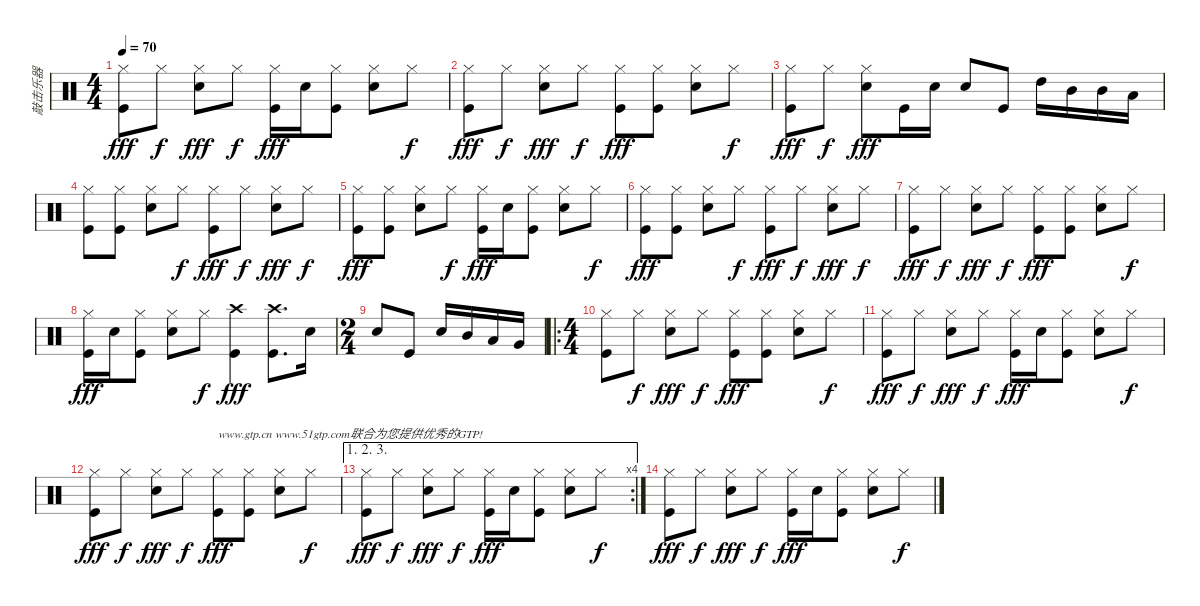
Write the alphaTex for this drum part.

\track ("敲击乐器" "敲击乐器") {instrument percussion}
\staff {score}
\articulation defaults
\ts (4 4)
\tempo 70
\clef neutral
\ks c
("Hi-Hat (closed)" "Kick (hit)").8{dy fff} "Hi-Hat (closed)".8{dy f} ("Hi-Hat (closed)" "Snare (hit) 2").8{dy fff} "Hi-Hat (closed)".8{dy f} ("Hi-Hat (closed)" "Kick (hit)").16{dy fff} "Snare (hit) 2".16 ("Hi-Hat (closed)" "Kick (hit)").8 ("Hi-Hat (closed)" "Snare (hit) 2").8 "Hi-Hat (closed)".8{dy f} |
("Hi-Hat (closed)" "Kick (hit)").8{dy fff} "Hi-Hat (closed)".8{dy f} ("Hi-Hat (closed)" "Snare (hit) 2").8{dy fff} "Hi-Hat (closed)".8{dy f} ("Hi-Hat (closed)" "Kick (hit)").8{dy fff} ("Hi-Hat (closed)" "Kick (hit)").8 ("Hi-Hat (closed)" "Snare (hit) 2").8 "Hi-Hat (closed)".8{dy f} |
("Hi-Hat (closed)" "Kick (hit)").8{dy fff} "Hi-Hat (closed)".8{dy f} ("Hi-Hat (closed)" "Snare (hit) 2").8{dy fff} "Kick (hit)".16 "Snare (hit) 2".16 "Snare (hit) 2".8 "Kick (hit)".8 "High Tom (hit)".16 "Mid Tom (hit)".16 "Mid Tom (hit)".16 "Low Tom (hit)".16 |
("Hi-Hat (closed)" "Kick (hit)").8 ("Hi-Hat (closed)" "Kick (hit)").8 ("Hi-Hat (closed)" "Snare (hit) 2").8 "Hi-Hat (closed)".8{dy f} ("Hi-Hat (closed)" "Kick (hit)").8{dy fff} "Hi-Hat (closed)".8{dy f} ("Hi-Hat (closed)" "Snare (hit) 2").8{dy fff} "Hi-Hat (closed)".8{dy f} |
("Hi-Hat (closed)" "Kick (hit)").8{dy fff} ("Hi-Hat (closed)" "Kick (hit)").8 ("Hi-Hat (closed)" "Snare (hit) 2").8 "Hi-Hat (closed)".8{dy f} ("Hi-Hat (closed)" "Kick (hit)").16{dy fff} "Snare (hit) 2".16 ("Hi-Hat (closed)" "Kick (hit)").8 ("Hi-Hat (closed)" "Snare (hit) 2").8 "Hi-Hat (closed)".8{dy f} |
("Hi-Hat (closed)" "Kick (hit)").8{dy fff} ("Hi-Hat (closed)" "Kick (hit)").8 ("Hi-Hat (closed)" "Snare (hit) 2").8 "Hi-Hat (closed)".8{dy f} ("Hi-Hat (closed)" "Kick (hit)").8{dy fff} "Hi-Hat (closed)".8{dy f} ("Hi-Hat (closed)" "Snare (hit) 2").8{dy fff} "Hi-Hat (closed)".8{dy f} |
("Hi-Hat (closed)" "Kick (hit)").8{dy fff} "Hi-Hat (closed)".8{dy f} ("Hi-Hat (closed)" "Snare (hit) 2").8{dy fff} "Hi-Hat (closed)".8{dy f} ("Hi-Hat (closed)" "Kick (hit)").8{dy fff} ("Hi-Hat (closed)" "Kick (hit)").8 ("Hi-Hat (closed)" "Snare (hit) 2").8 "Hi-Hat (closed)".8{dy f} |
("Hi-Hat (closed)" "Kick (hit)").16{dy fff} "Snare (hit) 2".16 ("Hi-Hat (closed)" "Kick (hit)").8 ("Hi-Hat (closed)" "Snare (hit) 2").8 "Hi-Hat (closed)".8{dy f} ("Crash high (hit)" "Kick (hit)").4{dy fff} ("Crash high (hit)" "Kick (hit)").8{d} "Snare (hit) 2".16 |
\ts (2 4)
"Snare (hit) 2".8 "Kick (hit)".8 "Snare (hit) 2".16 "Mid Tom (hit)".16 "Low Tom (hit)".16 "Very Low Tom (hit)".16 |
\ro
\ts (4 4)
("Hi-Hat (closed)" "Kick (hit)").8 "Hi-Hat (closed)".8{dy f} ("Hi-Hat (closed)" "Snare (hit) 2").8{dy fff} "Hi-Hat (closed)".8{dy f} ("Hi-Hat (closed)" "Kick (hit)").8{dy fff} ("Hi-Hat (closed)" "Kick (hit)").8 ("Hi-Hat (closed)" "Snare (hit) 2").8 "Hi-Hat (closed)".8{dy f} |
("Hi-Hat (closed)" "Kick (hit)").8{dy fff} "Hi-Hat (closed)".8{dy f} ("Hi-Hat (closed)" "Snare (hit) 2").8{dy fff} "Hi-Hat (closed)".8{dy f} ("Hi-Hat (closed)" "Kick (hit)").16{dy fff} "Snare (hit) 2".16 ("Hi-Hat (closed)" "Kick (hit)").8 ("Hi-Hat (closed)" "Snare (hit) 2").8 "Hi-Hat (closed)".8{dy f} |
("Hi-Hat (closed)" "Kick (hit)").8{dy fff} "Hi-Hat (closed)".8{dy f} ("Hi-Hat (closed)" "Snare (hit) 2").8{dy fff} "Hi-Hat (closed)".8{dy f} ("Hi-Hat (closed)" "Kick (hit)").8{txt "www.gtp.cn www.51gtp.com联合为您提供优秀的GTP!" dy fff} ("Hi-Hat (closed)" "Kick (hit)").8 ("Hi-Hat (closed)" "Snare (hit) 2").8 "Hi-Hat (closed)".8{dy f} |
\ae (1 2 3)
\rc 4
("Hi-Hat (closed)" "Kick (hit)").8{dy fff} "Hi-Hat (closed)".8{dy f} ("Hi-Hat (closed)" "Snare (hit) 2").8{dy fff} "Hi-Hat (closed)".8{dy f} ("Hi-Hat (closed)" "Kick (hit)").16{dy fff} "Snare (hit) 2".16 ("Hi-Hat (closed)" "Kick (hit)").8 ("Hi-Hat (closed)" "Snare (hit) 2").8 "Hi-Hat (closed)".8{dy f} |
("Hi-Hat (closed)" "Kick (hit)").8{dy fff} "Hi-Hat (closed)".8{dy f} ("Hi-Hat (closed)" "Snare (hit) 2").8{dy fff} "Hi-Hat (closed)".8{dy f} ("Hi-Hat (closed)" "Kick (hit)").16{dy fff} "Snare (hit) 2".16 ("Hi-Hat (closed)" "Kick (hit)").8 ("Hi-Hat (closed)" "Snare (hit) 2").8 "Hi-Hat (closed)".8{dy f}
